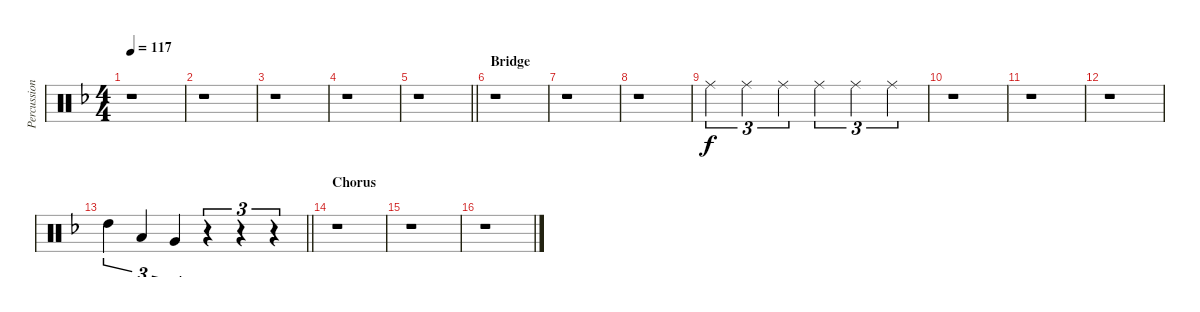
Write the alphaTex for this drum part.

\track ("Percussions" "Percussion") {instrument percussion}
\staff {score}
\articulation defaults
\ts (4 4)
\tempo 117
\clef neutral
\ks f
r.1{dy f} |
r.1 |
r.1 |
r.1 |
\barLineRight lightlight
r.1 |
\section ("" "Bridge")
r.1 |
r.1 |
r.1 |
"Ride (middle)".4{tu (3 2)} "Ride (middle)".4{tu (3 2)} "Ride (middle)".4{tu (3 2)} "Ride (middle)".4{tu (3 2)} "Ride (middle)".4{tu (3 2)} "Ride (middle)".4{tu (3 2)} |
r.1 |
r.1 |
r.1 |
\barLineRight lightlight "High Tom (hit)".4{tu (3 2)} "Low Tom (hit)".4{tu (3 2)} "Very Low Tom (hit)".4{tu (3 2)}
r.4{tu (3 2)} r.4{tu (3 2)} r.4{tu (3 2)} |
\section ("" "Chorus")
r.1 |
r.1 |
r.1
